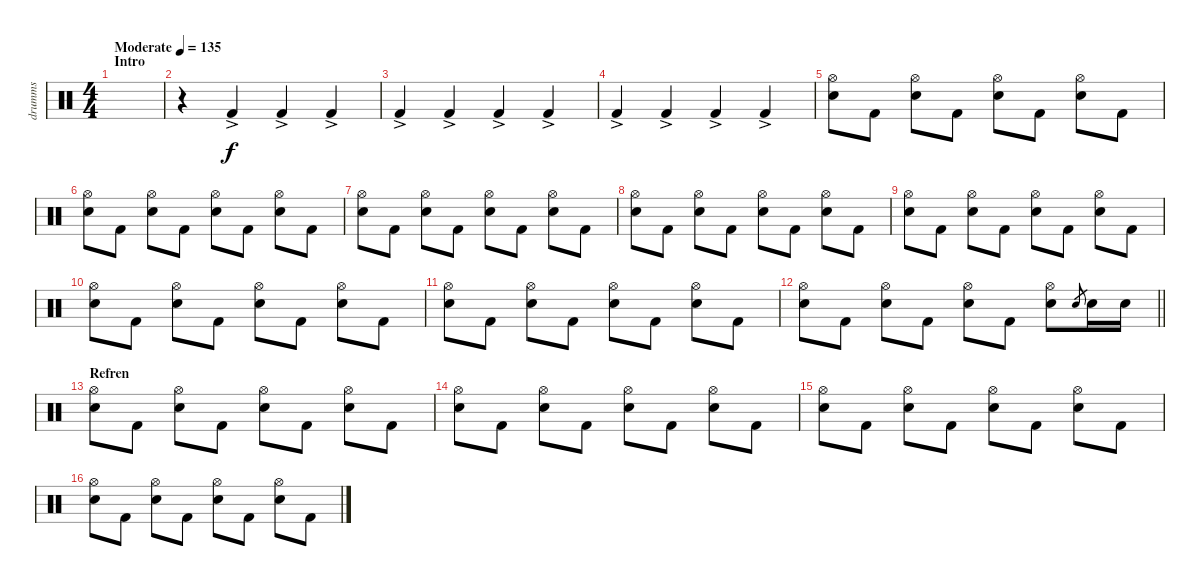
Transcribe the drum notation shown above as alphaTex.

\track ("drumms" "drumms") {instrument percussion}
\staff
\articulation defaults
\ts (4 4)
\section ("" "Intro")
\tempo (135 "Moderate")
\clef neutral
\ks c
|
r.4 "Kick (hit) 2"{ac}.4 "Kick (hit) 2"{ac}.4 "Kick (hit) 2"{ac}.4 |
"Kick (hit) 2"{ac}.4 "Kick (hit) 2"{ac}.4 "Kick (hit) 2"{ac}.4 "Kick (hit) 2"{ac}.4 |
"Kick (hit) 2"{ac}.4 "Kick (hit) 2"{ac}.4 "Kick (hit) 2"{ac}.4 "Kick (hit) 2"{ac}.4 |
("Hi-Hat (open)" "Snare (hit) 2").8 "Kick (hit) 2".8 ("Hi-Hat (open)" "Snare (hit) 2").8 "Kick (hit) 2".8 ("Hi-Hat (open)" "Snare (hit) 2").8 "Kick (hit) 2".8 ("Hi-Hat (open)" "Snare (hit) 2").8 "Kick (hit) 2".8 |
("Hi-Hat (open)" "Snare (hit) 2").8 "Kick (hit) 2".8 ("Hi-Hat (open)" "Snare (hit) 2").8 "Kick (hit) 2".8 ("Hi-Hat (open)" "Snare (hit) 2").8 "Kick (hit) 2".8 ("Hi-Hat (open)" "Snare (hit) 2").8 "Kick (hit) 2".8 |
("Hi-Hat (open)" "Snare (hit) 2").8 "Kick (hit) 2".8 ("Hi-Hat (open)" "Snare (hit) 2").8 "Kick (hit) 2".8 ("Hi-Hat (open)" "Snare (hit) 2").8 "Kick (hit) 2".8 ("Hi-Hat (open)" "Snare (hit) 2").8 "Kick (hit) 2".8 |
("Hi-Hat (open)" "Snare (hit) 2").8 "Kick (hit) 2".8 ("Hi-Hat (open)" "Snare (hit) 2").8 "Kick (hit) 2".8 ("Hi-Hat (open)" "Snare (hit) 2").8 "Kick (hit) 2".8 ("Hi-Hat (open)" "Snare (hit) 2").8 "Kick (hit) 2".8 |
("Hi-Hat (open)" "Snare (hit) 2").8 "Kick (hit) 2".8 ("Hi-Hat (open)" "Snare (hit) 2").8 "Kick (hit) 2".8 ("Hi-Hat (open)" "Snare (hit) 2").8 "Kick (hit) 2".8 ("Hi-Hat (open)" "Snare (hit) 2").8 "Kick (hit) 2".8 |
("Hi-Hat (open)" "Snare (hit) 2").8 "Kick (hit) 2".8 ("Hi-Hat (open)" "Snare (hit) 2").8 "Kick (hit) 2".8 ("Hi-Hat (open)" "Snare (hit) 2").8 "Kick (hit) 2".8 ("Hi-Hat (open)" "Snare (hit) 2").8 "Kick (hit) 2".8 |
("Hi-Hat (open)" "Snare (hit) 2").8 "Kick (hit) 2".8 ("Hi-Hat (open)" "Snare (hit) 2").8 "Kick (hit) 2".8 ("Hi-Hat (open)" "Snare (hit) 2").8 "Kick (hit) 2".8 ("Hi-Hat (open)" "Snare (hit) 2").8 "Kick (hit) 2".8 |
\barLineRight lightlight
("Hi-Hat (open)" "Snare (hit) 2").8 "Kick (hit) 2".8 ("Hi-Hat (open)" "Snare (hit) 2").8 "Kick (hit) 2".8 ("Hi-Hat (open)" "Snare (hit) 2").8 "Kick (hit) 2".8 ("Hi-Hat (open)" "Snare (hit) 2").8 "Snare (hit) 2".8{gr} "Snare (hit) 2".16 "Snare (hit) 2".16 |
\section ("" "Refren")
("Hi-Hat (open)" "Snare (hit) 2").8 "Kick (hit) 2".8 ("Hi-Hat (open)" "Snare (hit) 2").8 "Kick (hit) 2".8 ("Hi-Hat (open)" "Snare (hit) 2").8 "Kick (hit) 2".8 ("Hi-Hat (open)" "Snare (hit) 2").8 "Kick (hit) 2".8 |
("Hi-Hat (open)" "Snare (hit) 2").8 "Kick (hit) 2".8 ("Hi-Hat (open)" "Snare (hit) 2").8 "Kick (hit) 2".8 ("Hi-Hat (open)" "Snare (hit) 2").8 "Kick (hit) 2".8 ("Hi-Hat (open)" "Snare (hit) 2").8 "Kick (hit) 2".8 |
("Hi-Hat (open)" "Snare (hit) 2").8 "Kick (hit) 2".8 ("Hi-Hat (open)" "Snare (hit) 2").8 "Kick (hit) 2".8 ("Hi-Hat (open)" "Snare (hit) 2").8 "Kick (hit) 2".8 ("Hi-Hat (open)" "Snare (hit) 2").8 "Kick (hit) 2".8 |
("Hi-Hat (open)" "Snare (hit) 2").8 "Kick (hit) 2".8 ("Hi-Hat (open)" "Snare (hit) 2").8 "Kick (hit) 2".8 ("Hi-Hat (open)" "Snare (hit) 2").8 "Kick (hit) 2".8 ("Hi-Hat (open)" "Snare (hit) 2").8 "Kick (hit) 2".8
